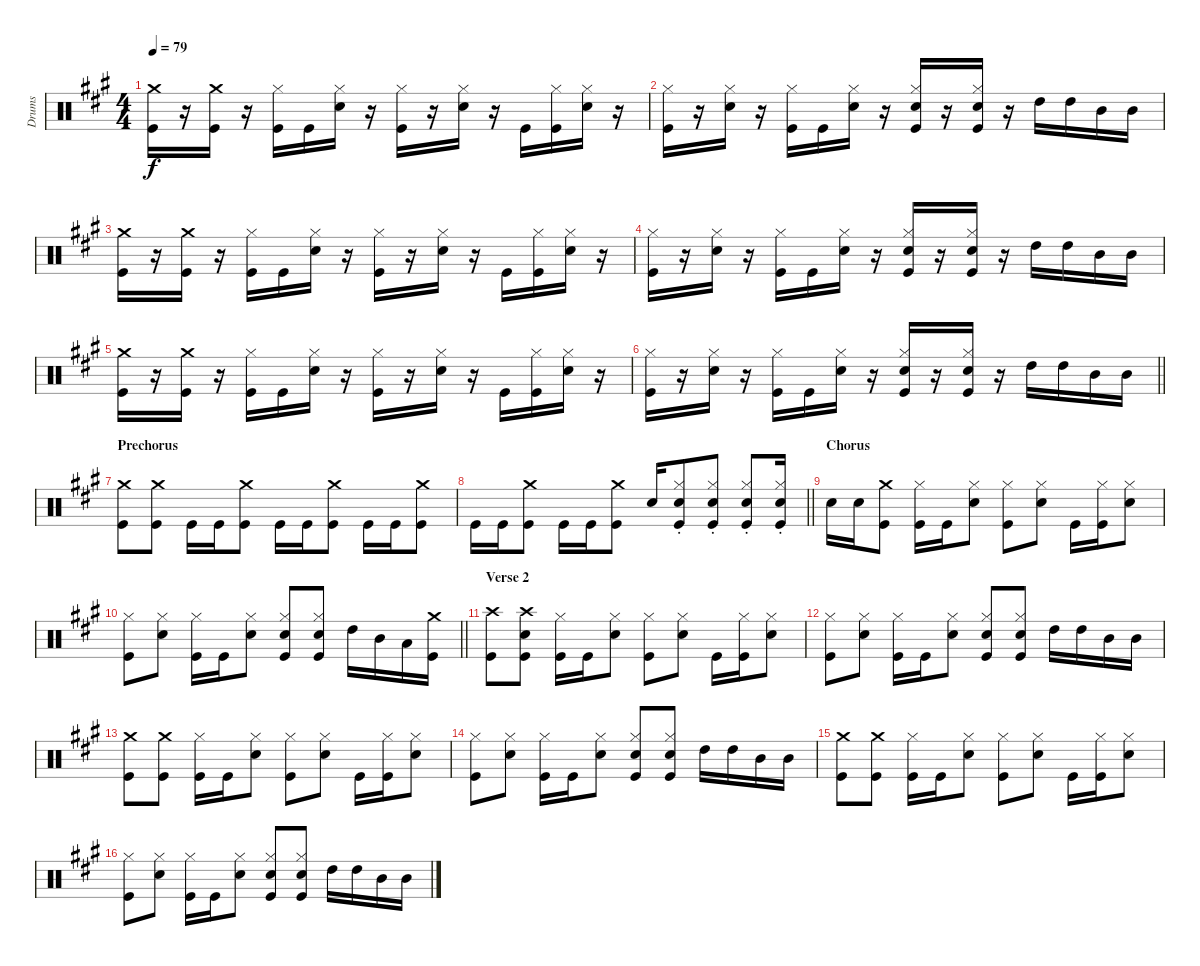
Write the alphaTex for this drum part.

\track ("Drums" "Drums") {instrument percussion}
\staff {score}
\articulation defaults
\ts (4 4)
\tempo 79
\clef neutral
\ks a
("Crash medium (hit)" "Kick (hit)").16{dy f} r.16 ("Crash medium (hit)" "Kick (hit)").16 r.16 ("Hi-Hat (closed)" "Kick (hit)").16 "Kick (hit)".16 ("Hi-Hat (closed)" "Snare (hit) 2").16 r.16 ("Hi-Hat (closed)" "Kick (hit)").16 r.16 ("Hi-Hat (closed)" "Snare (hit) 2").16 r.16 "Kick (hit)".16 ("Hi-Hat (closed)" "Kick (hit)").16 ("Hi-Hat (closed)" "Snare (hit) 2").16 r.16 |
("Hi-Hat (closed)" "Kick (hit)").16 r.16 ("Hi-Hat (closed)" "Snare (hit) 2").16 r.16 ("Hi-Hat (closed)" "Kick (hit)").16 "Kick (hit)".16 ("Hi-Hat (closed)" "Snare (hit) 2").16 r.16 ("Hi-Hat (closed)" "Snare (hit) 2" "Kick (hit)").16 r.16 ("Hi-Hat (closed)" "Snare (hit) 2" "Kick (hit)").16 r.16 "High Tom (hit)".16 "High Tom (hit)".16 "Mid Tom (hit)".16 "Mid Tom (hit)".16 |
("Crash medium (hit)" "Kick (hit)").16 r.16 ("Crash medium (hit)" "Kick (hit)").16 r.16 ("Hi-Hat (closed)" "Kick (hit)").16 "Kick (hit)".16 ("Hi-Hat (closed)" "Snare (hit) 2").16 r.16 ("Hi-Hat (closed)" "Kick (hit)").16 r.16 ("Hi-Hat (closed)" "Snare (hit) 2").16 r.16 "Kick (hit)".16 ("Hi-Hat (closed)" "Kick (hit)").16 ("Hi-Hat (closed)" "Snare (hit) 2").16 r.16 |
("Hi-Hat (closed)" "Kick (hit)").16 r.16 ("Hi-Hat (closed)" "Snare (hit) 2").16 r.16 ("Hi-Hat (closed)" "Kick (hit)").16 "Kick (hit)".16 ("Hi-Hat (closed)" "Snare (hit) 2").16 r.16 ("Hi-Hat (closed)" "Snare (hit) 2" "Kick (hit)").16 r.16 ("Hi-Hat (closed)" "Snare (hit) 2" "Kick (hit)").16 r.16 "High Tom (hit)".16 "High Tom (hit)".16 "Mid Tom (hit)".16 "Mid Tom (hit)".16 |
("Crash medium (hit)" "Kick (hit)").16 r.16 ("Crash medium (hit)" "Kick (hit)").16 r.16 ("Hi-Hat (closed)" "Kick (hit)").16 "Kick (hit)".16 ("Hi-Hat (closed)" "Snare (hit) 2").16 r.16 ("Hi-Hat (closed)" "Kick (hit)").16 r.16 ("Hi-Hat (closed)" "Snare (hit) 2").16 r.16 "Kick (hit)".16 ("Hi-Hat (closed)" "Kick (hit)").16 ("Hi-Hat (closed)" "Snare (hit) 2").16 r.16 |
\barLineRight lightlight
("Hi-Hat (closed)" "Kick (hit)").16 r.16 ("Hi-Hat (closed)" "Snare (hit) 2").16 r.16 ("Hi-Hat (closed)" "Kick (hit)").16 "Kick (hit)".16 ("Hi-Hat (closed)" "Snare (hit) 2").16 r.16 ("Hi-Hat (closed)" "Snare (hit) 2" "Kick (hit)").16 r.16 ("Hi-Hat (closed)" "Snare (hit) 2" "Kick (hit)").16 r.16 "High Tom (hit)".16 "High Tom (hit)".16 "Mid Tom (hit)".16 "Mid Tom (hit)".16 |
\section ("" "Prechorus")
("Crash medium (hit)" "Kick (hit)").8 ("Crash medium (hit)" "Kick (hit)").8 "Kick (hit)".16 "Kick (hit)".16 ("Crash medium (hit)" "Kick (hit)").8 "Kick (hit)".16 "Kick (hit)".16 ("Crash medium (hit)" "Kick (hit)").8 "Kick (hit)".16 "Kick (hit)".16 ("Crash medium (hit)" "Kick (hit)").8 |
\barLineRight lightlight "Kick (hit)".16 "Kick (hit)".16
("Crash medium (hit)" "Kick (hit)").8 "Kick (hit)".16 "Kick (hit)".16 ("Crash medium (hit)" "Kick (hit)").8 "Snare (hit) 2".16 ("Hi-Hat (closed)"{st} "Snare (hit) 2"{st} "Kick (hit)"{st}).8 ("Hi-Hat (closed)"{st} "Snare (hit) 2"{st} "Kick (hit)"{st}).8 ("Hi-Hat (closed)"{st} "Snare (hit) 2"{st} "Kick (hit)"{st}).8 ("Hi-Hat (closed)"{st} "Snare (hit) 2"{st} "Kick (hit)"{st}).16 |
\section ("" "Chorus")
"Snare (hit) 2".16 "Snare (hit) 2".16 ("Crash medium (hit)" "Kick (hit)").8 ("Hi-Hat (closed)" "Kick (hit)").16 "Kick (hit)".16 ("Hi-Hat (closed)" "Snare (hit) 2").8 ("Hi-Hat (closed)" "Kick (hit)").8 ("Hi-Hat (closed)" "Snare (hit) 2").8 "Kick (hit)".16 ("Hi-Hat (closed)" "Kick (hit)").16 ("Hi-Hat (closed)" "Snare (hit) 2").8 |
\barLineRight lightlight
("Hi-Hat (closed)" "Kick (hit)").8 ("Hi-Hat (closed)" "Snare (hit) 2").8 ("Hi-Hat (closed)" "Kick (hit)").16 "Kick (hit)".16 ("Hi-Hat (closed)" "Snare (hit) 2").8 ("Hi-Hat (closed)" "Snare (hit) 2" "Kick (hit)").8 ("Hi-Hat (closed)" "Snare (hit) 2" "Kick (hit)").8 "High Tom (hit)".16 "Mid Tom (hit)".16 "Low Tom (hit)".16 ("Crash medium (hit)" "Kick (hit)").16 |
\section ("" "Verse 2")
("Crash high (hit)" "Kick (hit)").8 ("Crash high (hit)" "Snare (hit) 2" "Kick (hit)").8 ("Hi-Hat (closed)" "Kick (hit)").16 "Kick (hit)".16 ("Hi-Hat (closed)" "Snare (hit) 2").8 ("Hi-Hat (closed)" "Kick (hit)").8 ("Hi-Hat (closed)" "Snare (hit) 2").8 "Kick (hit)".16 ("Hi-Hat (closed)" "Kick (hit)").16 ("Hi-Hat (closed)" "Snare (hit) 2").8 |
("Hi-Hat (closed)" "Kick (hit)").8 ("Hi-Hat (closed)" "Snare (hit) 2").8 ("Hi-Hat (closed)" "Kick (hit)").16 "Kick (hit)".16 ("Hi-Hat (closed)" "Snare (hit) 2").8 ("Hi-Hat (closed)" "Snare (hit) 2" "Kick (hit)").8 ("Hi-Hat (closed)" "Snare (hit) 2" "Kick (hit)").8 "High Tom (hit)".16 "High Tom (hit)".16 "Mid Tom (hit)".16 "Mid Tom (hit)".16 |
("Crash medium (hit)" "Kick (hit)").8 ("Crash medium (hit)" "Kick (hit)").8 ("Hi-Hat (closed)" "Kick (hit)").16 "Kick (hit)".16 ("Hi-Hat (closed)" "Snare (hit) 2").8 ("Hi-Hat (closed)" "Kick (hit)").8 ("Hi-Hat (closed)" "Snare (hit) 2").8 "Kick (hit)".16 ("Hi-Hat (closed)" "Kick (hit)").16 ("Hi-Hat (closed)" "Snare (hit) 2").8 |
("Hi-Hat (closed)" "Kick (hit)").8 ("Hi-Hat (closed)" "Snare (hit) 2").8 ("Hi-Hat (closed)" "Kick (hit)").16 "Kick (hit)".16 ("Hi-Hat (closed)" "Snare (hit) 2").8 ("Hi-Hat (closed)" "Snare (hit) 2" "Kick (hit)").8 ("Hi-Hat (closed)" "Snare (hit) 2" "Kick (hit)").8 "High Tom (hit)".16 "High Tom (hit)".16 "Mid Tom (hit)".16 "Mid Tom (hit)".16 |
("Crash medium (hit)" "Kick (hit)").8 ("Crash medium (hit)" "Kick (hit)").8 ("Hi-Hat (closed)" "Kick (hit)").16 "Kick (hit)".16 ("Hi-Hat (closed)" "Snare (hit) 2").8 ("Hi-Hat (closed)" "Kick (hit)").8 ("Hi-Hat (closed)" "Snare (hit) 2").8 "Kick (hit)".16 ("Hi-Hat (closed)" "Kick (hit)").16 ("Hi-Hat (closed)" "Snare (hit) 2").8 |
("Hi-Hat (closed)" "Kick (hit)").8 ("Hi-Hat (closed)" "Snare (hit) 2").8 ("Hi-Hat (closed)" "Kick (hit)").16 "Kick (hit)".16 ("Hi-Hat (closed)" "Snare (hit) 2").8 ("Hi-Hat (closed)" "Snare (hit) 2" "Kick (hit)").8 ("Hi-Hat (closed)" "Snare (hit) 2" "Kick (hit)").8 "High Tom (hit)".16 "High Tom (hit)".16 "Mid Tom (hit)".16 "Mid Tom (hit)".16
